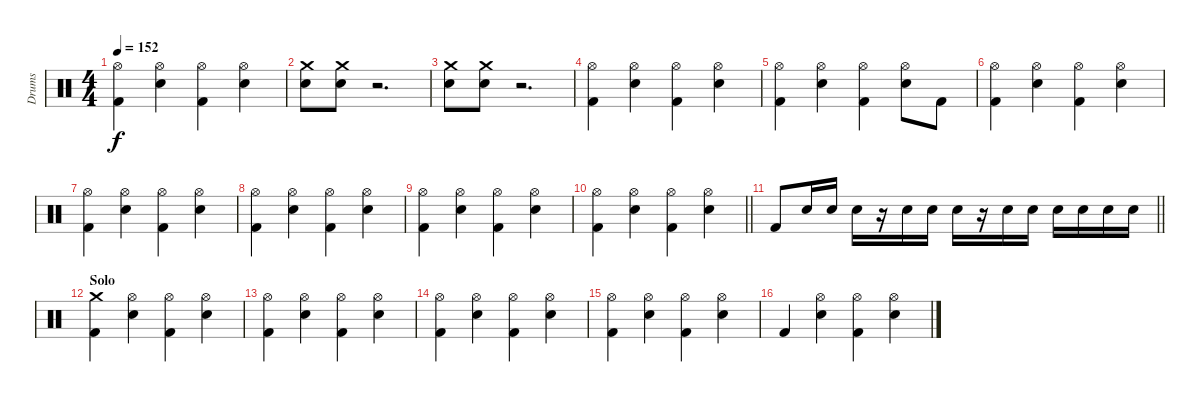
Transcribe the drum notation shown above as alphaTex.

\track ("Drums" "Drums") {instrument percussion}
\staff {score}
\articulation defaults
\ts (4 4)
\tempo 152
\clef neutral
\ks c
("Hi-Hat (open)" "Kick (hit) 2").4{dy f} ("Hi-Hat (open)" "Electric Snare (hit)").4 ("Hi-Hat (open)" "Kick (hit) 2").4 ("Hi-Hat (open)" "Electric Snare (hit)").4 |
("Crash medium (hit)" "Electric Snare (hit)").8 ("Crash medium (hit)" "Electric Snare (hit)").8 r.2{d} |
("Crash medium (hit)" "Electric Snare (hit)").8 ("Crash medium (hit)" "Electric Snare (hit)").8 r.2{d} |
("Hi-Hat (open)" "Kick (hit) 2").4 ("Hi-Hat (open)" "Electric Snare (hit)").4 ("Hi-Hat (open)" "Kick (hit) 2").4 ("Hi-Hat (open)" "Electric Snare (hit)").4 |
("Hi-Hat (open)" "Kick (hit) 2").4 ("Hi-Hat (open)" "Electric Snare (hit)").4 ("Hi-Hat (open)" "Kick (hit) 2").4 ("Hi-Hat (open)" "Electric Snare (hit)").8 "Kick (hit) 2".8 |
("Hi-Hat (open)" "Kick (hit) 2").4 ("Hi-Hat (open)" "Electric Snare (hit)").4 ("Hi-Hat (open)" "Kick (hit) 2").4 ("Hi-Hat (open)" "Electric Snare (hit)").4 |
("Hi-Hat (open)" "Kick (hit) 2").4 ("Hi-Hat (open)" "Electric Snare (hit)").4 ("Hi-Hat (open)" "Kick (hit) 2").4 ("Hi-Hat (open)" "Electric Snare (hit)").4 |
("Hi-Hat (open)" "Kick (hit) 2").4 ("Hi-Hat (open)" "Electric Snare (hit)").4 ("Hi-Hat (open)" "Kick (hit) 2").4 ("Hi-Hat (open)" "Electric Snare (hit)").4 |
("Hi-Hat (open)" "Kick (hit) 2").4 ("Hi-Hat (open)" "Electric Snare (hit)").4 ("Hi-Hat (open)" "Kick (hit) 2").4 ("Hi-Hat (open)" "Electric Snare (hit)").4 |
\barLineRight lightlight
("Hi-Hat (open)" "Kick (hit) 2").4 ("Hi-Hat (open)" "Electric Snare (hit)").4 ("Hi-Hat (open)" "Kick (hit) 2").4 ("Hi-Hat (open)" "Electric Snare (hit)").4 |
\section ("" "")
\barLineRight lightlight "Kick (hit) 2".8 "Electric Snare (hit)".16 "Electric Snare (hit)".16 "Electric Snare (hit)".16
r.16 "Electric Snare (hit)".16 "Electric Snare (hit)".16 "Electric Snare (hit)".16 r.16 "Electric Snare (hit)".16 "Electric Snare (hit)".16 "Electric Snare (hit)".16 "Electric Snare (hit)".16 "Electric Snare (hit)".16 "Electric Snare (hit)".16 |
\section ("" "Solo")
("Crash medium (hit)" "Kick (hit) 2").4 ("Hi-Hat (open)" "Electric Snare (hit)").4 ("Hi-Hat (open)" "Kick (hit) 2").4 ("Hi-Hat (open)" "Electric Snare (hit)").4 |
("Hi-Hat (open)" "Kick (hit) 2").4 ("Hi-Hat (open)" "Electric Snare (hit)").4 ("Hi-Hat (open)" "Kick (hit) 2").4 ("Hi-Hat (open)" "Electric Snare (hit)").4 |
("Hi-Hat (open)" "Kick (hit) 2").4 ("Hi-Hat (open)" "Electric Snare (hit)").4 ("Hi-Hat (open)" "Kick (hit) 2").4 ("Hi-Hat (open)" "Electric Snare (hit)").4 |
("Hi-Hat (open)" "Kick (hit) 2").4 ("Hi-Hat (open)" "Electric Snare (hit)").4 ("Hi-Hat (open)" "Kick (hit) 2").4 ("Hi-Hat (open)" "Electric Snare (hit)").4 |
"Kick (hit) 2".4 ("Hi-Hat (open)" "Electric Snare (hit)").4 ("Hi-Hat (open)" "Kick (hit) 2").4 ("Hi-Hat (open)" "Electric Snare (hit)").4
